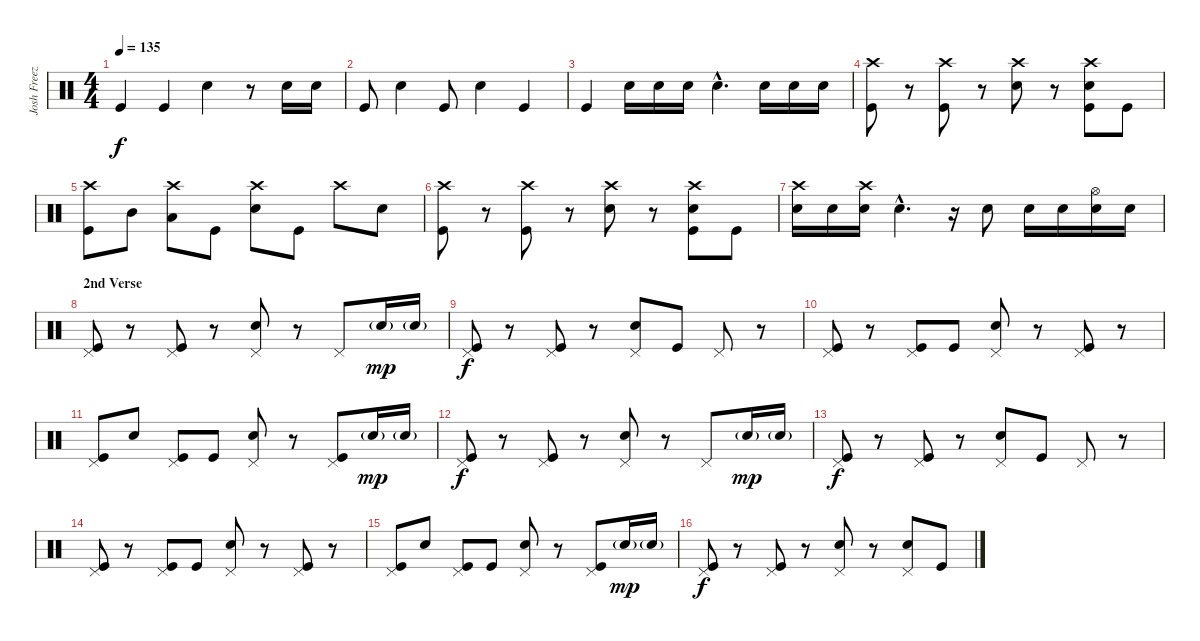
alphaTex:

\track ("Josh Freeze" "Josh Freez") {instrument percussion}
\staff {score}
\articulation defaults
\ts (4 4)
\tempo 135
\clef neutral
\ks c "Kick (hit)".4{dy f} "Kick (hit)".4 "Electric Snare (hit)".4
r.8 "Electric Snare (hit)".16 "Electric Snare (hit)".16 |
"Kick (hit)".8 "Electric Snare (hit)".4 "Kick (hit)".8 "Electric Snare (hit)".4 "Kick (hit)".4 |
"Kick (hit)".4 "Electric Snare (hit)".16 "Electric Snare (hit)".16 "Electric Snare (hit)".16 "Electric Snare (hit)"{hac}.4{d} "Electric Snare (hit)".16 "Electric Snare (hit)".16 "Electric Snare (hit)".16 |
("Crash high (hit)" "Kick (hit)").8 r.8 ("Crash high (hit)" "Kick (hit)").8 r.8 ("Crash high (hit)" "Electric Snare (hit)").8 r.8 ("Crash high (hit)" "Electric Snare (hit)" "Kick (hit)").8 "Kick (hit)".8 |
("Crash high (hit)" "Kick (hit)").8 "Mid Tom (hit)".8 ("Crash high (hit)" "Low Tom (hit)").8 "Kick (hit)".8 ("Crash high (hit)" "Electric Snare (hit)").8 "Kick (hit)".8 "Crash high (hit)".8 "Electric Snare (hit)".8 |
("Crash high (hit)" "Kick (hit)").8 r.8 ("Crash high (hit)" "Kick (hit)").8 r.8 ("Crash high (hit)" "Electric Snare (hit)").8 r.8 ("Crash high (hit)" "Electric Snare (hit)" "Kick (hit)").8 "Kick (hit)".8 |
("Crash high (hit)" "Electric Snare (hit)").16 "Electric Snare (hit)".16 ("Crash high (hit)" "Electric Snare (hit)").16 "Electric Snare (hit)"{hac}.4{d} r.16 "Electric Snare (hit)".8 "Electric Snare (hit)".16 "Electric Snare (hit)".16 ("Hi-Hat (open)" "Electric Snare (hit)").16 "Electric Snare (hit)".16 |
\section ("" "2nd Verse")
("Pedal Hi-Hat (hit)" "Kick (hit)").8 r.8 ("Pedal Hi-Hat (hit)" "Kick (hit)").8 r.8 ("Pedal Hi-Hat (hit)" "Electric Snare (hit)").8 r.8 "Pedal Hi-Hat (hit)".8 "Electric Snare (hit)"{g}.16{dy mp} "Electric Snare (hit)"{g}.16 |
("Pedal Hi-Hat (hit)" "Kick (hit)").8{dy f} r.8 ("Pedal Hi-Hat (hit)" "Kick (hit)").8 r.8 ("Pedal Hi-Hat (hit)" "Electric Snare (hit)").8 "Kick (hit)".8 "Pedal Hi-Hat (hit)".8 r.8 |
("Pedal Hi-Hat (hit)" "Kick (hit)").8 r.8 ("Pedal Hi-Hat (hit)" "Kick (hit)").8 "Kick (hit)".8 ("Pedal Hi-Hat (hit)" "Electric Snare (hit)").8 r.8 ("Pedal Hi-Hat (hit)" "Kick (hit)").8 r.8 |
("Pedal Hi-Hat (hit)" "Kick (hit)").8 "Electric Snare (hit)".8 ("Pedal Hi-Hat (hit)" "Kick (hit)").8 "Kick (hit)".8 ("Pedal Hi-Hat (hit)" "Electric Snare (hit)").8 r.8 ("Pedal Hi-Hat (hit)" "Kick (hit)").8 "Electric Snare (hit)"{g}.16{dy mp} "Electric Snare (hit)"{g}.16 |
("Pedal Hi-Hat (hit)" "Kick (hit)").8{dy f} r.8 ("Pedal Hi-Hat (hit)" "Kick (hit)").8 r.8 ("Pedal Hi-Hat (hit)" "Electric Snare (hit)").8 r.8 "Pedal Hi-Hat (hit)".8 "Electric Snare (hit)"{g}.16{dy mp} "Electric Snare (hit)"{g}.16 |
("Pedal Hi-Hat (hit)" "Kick (hit)").8{dy f} r.8 ("Pedal Hi-Hat (hit)" "Kick (hit)").8 r.8 ("Pedal Hi-Hat (hit)" "Electric Snare (hit)").8 "Kick (hit)".8 "Pedal Hi-Hat (hit)".8 r.8 |
("Pedal Hi-Hat (hit)" "Kick (hit)").8 r.8 ("Pedal Hi-Hat (hit)" "Kick (hit)").8 "Kick (hit)".8 ("Pedal Hi-Hat (hit)" "Electric Snare (hit)").8 r.8 ("Pedal Hi-Hat (hit)" "Kick (hit)").8 r.8 |
("Pedal Hi-Hat (hit)" "Kick (hit)").8 "Electric Snare (hit)".8 ("Pedal Hi-Hat (hit)" "Kick (hit)").8 "Kick (hit)".8 ("Pedal Hi-Hat (hit)" "Electric Snare (hit)").8 r.8 ("Pedal Hi-Hat (hit)" "Kick (hit)").8 "Electric Snare (hit)"{g}.16{dy mp} "Electric Snare (hit)"{g}.16 |
("Pedal Hi-Hat (hit)" "Kick (hit)").8{dy f} r.8 ("Pedal Hi-Hat (hit)" "Kick (hit)").8 r.8 ("Pedal Hi-Hat (hit)" "Electric Snare (hit)").8 r.8 ("Pedal Hi-Hat (hit)" "Electric Snare (hit)").8 "Kick (hit)".8
